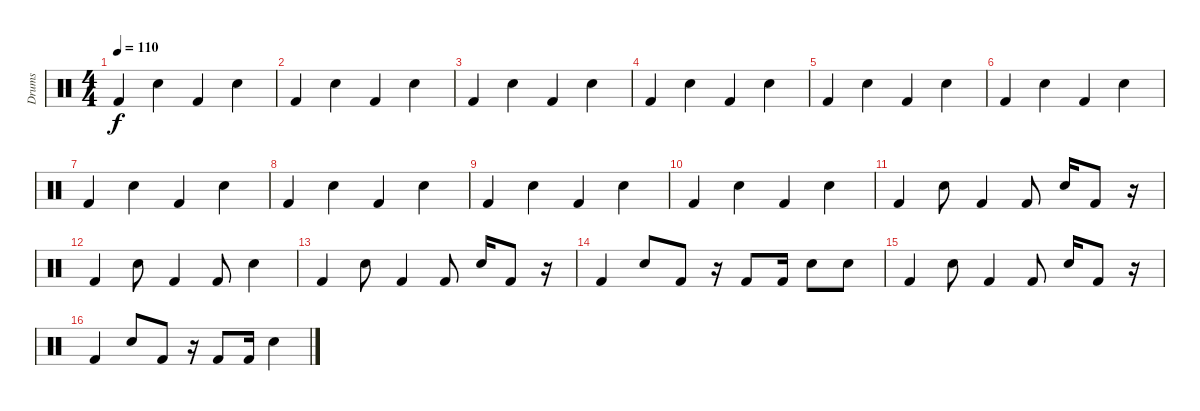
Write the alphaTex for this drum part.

\track ("Drums" "Drums") {instrument percussion}
\staff {score}
\articulation defaults
\ts (4 4)
\tempo 110
\clef neutral
\ks c "Kick (hit) 2".4{dy f} "Electric Snare (hit)".4 "Kick (hit) 2".4 "Electric Snare (hit)".4
|
"Kick (hit) 2".4 "Electric Snare (hit)".4 "Kick (hit) 2".4 "Electric Snare (hit)".4 |
"Kick (hit) 2".4 "Electric Snare (hit)".4 "Kick (hit) 2".4 "Electric Snare (hit)".4 |
"Kick (hit) 2".4 "Electric Snare (hit)".4 "Kick (hit) 2".4 "Electric Snare (hit)".4 |
"Kick (hit) 2".4 "Electric Snare (hit)".4 "Kick (hit) 2".4 "Electric Snare (hit)".4 |
"Kick (hit) 2".4 "Electric Snare (hit)".4 "Kick (hit) 2".4 "Electric Snare (hit)".4 |
"Kick (hit) 2".4 "Electric Snare (hit)".4 "Kick (hit) 2".4 "Electric Snare (hit)".4 |
"Kick (hit) 2".4 "Electric Snare (hit)".4 "Kick (hit) 2".4 "Electric Snare (hit)".4 |
"Kick (hit) 2".4 "Electric Snare (hit)".4 "Kick (hit) 2".4 "Electric Snare (hit)".4 |
"Kick (hit) 2".4 "Electric Snare (hit)".4 "Kick (hit) 2".4 "Electric Snare (hit)".4 |
"Kick (hit) 2".4 "Electric Snare (hit)".8 "Kick (hit) 2".4 "Kick (hit) 2".8 "Electric Snare (hit)".16 "Kick (hit) 2".8 r.16 |
"Kick (hit) 2".4 "Electric Snare (hit)".8 "Kick (hit) 2".4 "Kick (hit) 2".8 "Electric Snare (hit)".4 |
"Kick (hit) 2".4 "Electric Snare (hit)".8 "Kick (hit) 2".4 "Kick (hit) 2".8 "Electric Snare (hit)".16 "Kick (hit) 2".8 r.16 |
"Kick (hit) 2".4 "Electric Snare (hit)".8 "Kick (hit) 2".8 r.16 "Kick (hit) 2".8 "Kick (hit) 2".16 "Electric Snare (hit)".8 "Electric Snare (hit)".8 |
"Kick (hit) 2".4 "Electric Snare (hit)".8 "Kick (hit) 2".4 "Kick (hit) 2".8 "Electric Snare (hit)".16 "Kick (hit) 2".8 r.16 |
"Kick (hit) 2".4 "Electric Snare (hit)".8 "Kick (hit) 2".8 r.16 "Kick (hit) 2".8 "Kick (hit) 2".16 "Electric Snare (hit)".4
